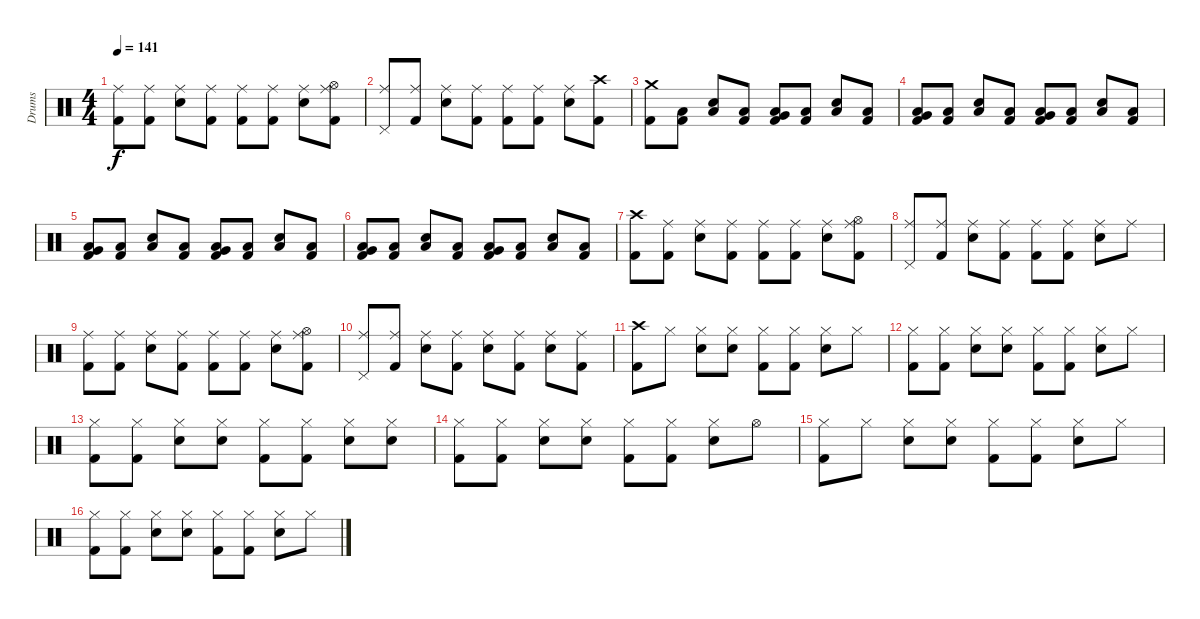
\track ("Drums" "Drums") {instrument percussion}
\staff {score}
\articulation defaults
\ts (4 4)
\tempo 141
\clef neutral
\ks c
("Ride (middle)" "Kick (hit) 2").8{dy f} ("Ride (middle)" "Kick (hit) 2").8 ("Ride (middle)" "Electric Snare (hit)").8 ("Ride (middle)" "Kick (hit) 2").8 ("Ride (middle)" "Kick (hit) 2").8 ("Ride (middle)" "Kick (hit) 2").8 ("Ride (middle)" "Electric Snare (hit)").8 ("Ride (middle)" "Hi-Hat (open)" "Kick (hit) 2").8 |
("Ride (middle)" "Pedal Hi-Hat (hit)").8 ("Ride (middle)" "Kick (hit) 2").8 ("Ride (middle)" "Electric Snare (hit)").8 ("Ride (middle)" "Kick (hit) 2").8 ("Ride (middle)" "Kick (hit) 2").8 ("Ride (middle)" "Kick (hit) 2").8 ("Ride (middle)" "Electric Snare (hit)").8 ("Crash high (hit)" "Kick (hit) 2").8 |
("Crash medium (hit)" "Kick (hit) 2").8 ("Low Floor Tom (hit)" "Kick (hit) 2").8 ("Low Floor Tom (hit)" "Electric Snare (hit)").8 ("Low Floor Tom (hit)" "Kick (hit) 2").8 ("Low Floor Tom (hit)" "Very Low Tom (hit)" "Kick (hit) 2").8 ("Low Floor Tom (hit)" "Kick (hit) 2").8 ("Low Floor Tom (hit)" "Electric Snare (hit)").8 ("Low Floor Tom (hit)" "Kick (hit) 2").8 |
("Low Floor Tom (hit)" "Very Low Tom (hit)" "Kick (hit) 2").8 ("Low Floor Tom (hit)" "Kick (hit) 2").8 ("Low Floor Tom (hit)" "Electric Snare (hit)").8 ("Low Floor Tom (hit)" "Kick (hit) 2").8 ("Low Floor Tom (hit)" "Very Low Tom (hit)" "Kick (hit) 2").8 ("Low Floor Tom (hit)" "Kick (hit) 2").8 ("Low Floor Tom (hit)" "Electric Snare (hit)").8 ("Low Floor Tom (hit)" "Kick (hit) 2").8 |
("Low Floor Tom (hit)" "Very Low Tom (hit)" "Kick (hit) 2").8 ("Low Floor Tom (hit)" "Kick (hit) 2").8 ("Low Floor Tom (hit)" "Electric Snare (hit)").8 ("Low Floor Tom (hit)" "Kick (hit) 2").8 ("Low Floor Tom (hit)" "Very Low Tom (hit)" "Kick (hit) 2").8 ("Low Floor Tom (hit)" "Kick (hit) 2").8 ("Low Floor Tom (hit)" "Electric Snare (hit)").8 ("Low Floor Tom (hit)" "Kick (hit) 2").8 |
("Low Floor Tom (hit)" "Very Low Tom (hit)" "Kick (hit) 2").8 ("Low Floor Tom (hit)" "Kick (hit) 2").8 ("Low Floor Tom (hit)" "Electric Snare (hit)").8 ("Low Floor Tom (hit)" "Kick (hit) 2").8 ("Low Floor Tom (hit)" "Very Low Tom (hit)" "Kick (hit) 2").8 ("Low Floor Tom (hit)" "Kick (hit) 2").8 ("Low Floor Tom (hit)" "Electric Snare (hit)").8 ("Low Floor Tom (hit)" "Kick (hit) 2").8 |
("Crash high (hit)" "Kick (hit) 2").8 ("Ride (middle)" "Kick (hit) 2").8 ("Ride (middle)" "Electric Snare (hit)").8 ("Ride (middle)" "Kick (hit) 2").8 ("Ride (middle)" "Kick (hit) 2").8 ("Ride (middle)" "Kick (hit) 2").8 ("Ride (middle)" "Electric Snare (hit)").8 ("Ride (middle)" "Hi-Hat (open)" "Kick (hit) 2").8 |
("Ride (middle)" "Pedal Hi-Hat (hit)").8 ("Ride (middle)" "Kick (hit) 2").8 ("Ride (middle)" "Electric Snare (hit)").8 ("Ride (middle)" "Kick (hit) 2").8 ("Ride (middle)" "Kick (hit) 2").8 ("Ride (middle)" "Kick (hit) 2").8 ("Ride (middle)" "Electric Snare (hit)").8 "Ride (middle)".8 |
("Ride (middle)" "Kick (hit) 2").8 ("Ride (middle)" "Kick (hit) 2").8 ("Ride (middle)" "Electric Snare (hit)").8 ("Ride (middle)" "Kick (hit) 2").8 ("Ride (middle)" "Kick (hit) 2").8 ("Ride (middle)" "Kick (hit) 2").8 ("Ride (middle)" "Electric Snare (hit)").8 ("Ride (middle)" "Hi-Hat (open)" "Kick (hit) 2").8 |
("Ride (middle)" "Pedal Hi-Hat (hit)").8 ("Ride (middle)" "Kick (hit) 2").8 ("Ride (middle)" "Electric Snare (hit)").8 ("Ride (middle)" "Kick (hit) 2").8 ("Ride (middle)" "Electric Snare (hit)").8 ("Ride (middle)" "Kick (hit) 2").8 ("Ride (middle)" "Electric Snare (hit)").8 ("Ride (middle)" "Kick (hit) 2").8 |
("Crash high (hit)" "Kick (hit) 2").8 "Hi-Hat (closed)".8 ("Hi-Hat (closed)" "Electric Snare (hit)").8 ("Hi-Hat (closed)" "Electric Snare (hit)").8 ("Hi-Hat (closed)" "Kick (hit) 2").8 ("Hi-Hat (closed)" "Kick (hit) 2").8 ("Hi-Hat (closed)" "Electric Snare (hit)").8 "Hi-Hat (closed)".8 |
("Hi-Hat (closed)" "Kick (hit) 2").8 ("Hi-Hat (closed)" "Kick (hit) 2").8 ("Hi-Hat (closed)" "Electric Snare (hit)").8 ("Hi-Hat (closed)" "Electric Snare (hit)").8 ("Hi-Hat (closed)" "Kick (hit) 2").8 ("Hi-Hat (closed)" "Kick (hit) 2").8 ("Hi-Hat (closed)" "Electric Snare (hit)").8 "Hi-Hat (closed)".8 |
("Hi-Hat (closed)" "Kick (hit) 2").8 ("Hi-Hat (closed)" "Kick (hit) 2").8 ("Hi-Hat (closed)" "Electric Snare (hit)").8 ("Hi-Hat (closed)" "Electric Snare (hit)").8 ("Hi-Hat (closed)" "Kick (hit) 2").8 ("Hi-Hat (closed)" "Kick (hit) 2").8 ("Hi-Hat (closed)" "Electric Snare (hit)").8 ("Hi-Hat (closed)" "Electric Snare (hit)").8 |
("Hi-Hat (closed)" "Kick (hit) 2").8 ("Hi-Hat (closed)" "Kick (hit) 2").8 ("Hi-Hat (closed)" "Electric Snare (hit)").8 ("Hi-Hat (closed)" "Electric Snare (hit)").8 ("Hi-Hat (closed)" "Kick (hit) 2").8 ("Hi-Hat (closed)" "Kick (hit) 2").8 ("Hi-Hat (closed)" "Electric Snare (hit)").8 "Hi-Hat (open)".8 |
("Hi-Hat (closed)" "Kick (hit) 2").8 "Hi-Hat (closed)".8 ("Hi-Hat (closed)" "Electric Snare (hit)").8 ("Hi-Hat (closed)" "Electric Snare (hit)").8 ("Hi-Hat (closed)" "Kick (hit) 2").8 ("Hi-Hat (closed)" "Kick (hit) 2").8 ("Hi-Hat (closed)" "Electric Snare (hit)").8 "Hi-Hat (closed)".8 |
("Hi-Hat (closed)" "Kick (hit) 2").8 ("Hi-Hat (closed)" "Kick (hit) 2").8 ("Hi-Hat (closed)" "Electric Snare (hit)").8 ("Hi-Hat (closed)" "Electric Snare (hit)").8 ("Hi-Hat (closed)" "Kick (hit) 2").8 ("Hi-Hat (closed)" "Kick (hit) 2").8 ("Hi-Hat (closed)" "Electric Snare (hit)").8 "Hi-Hat (closed)".8
